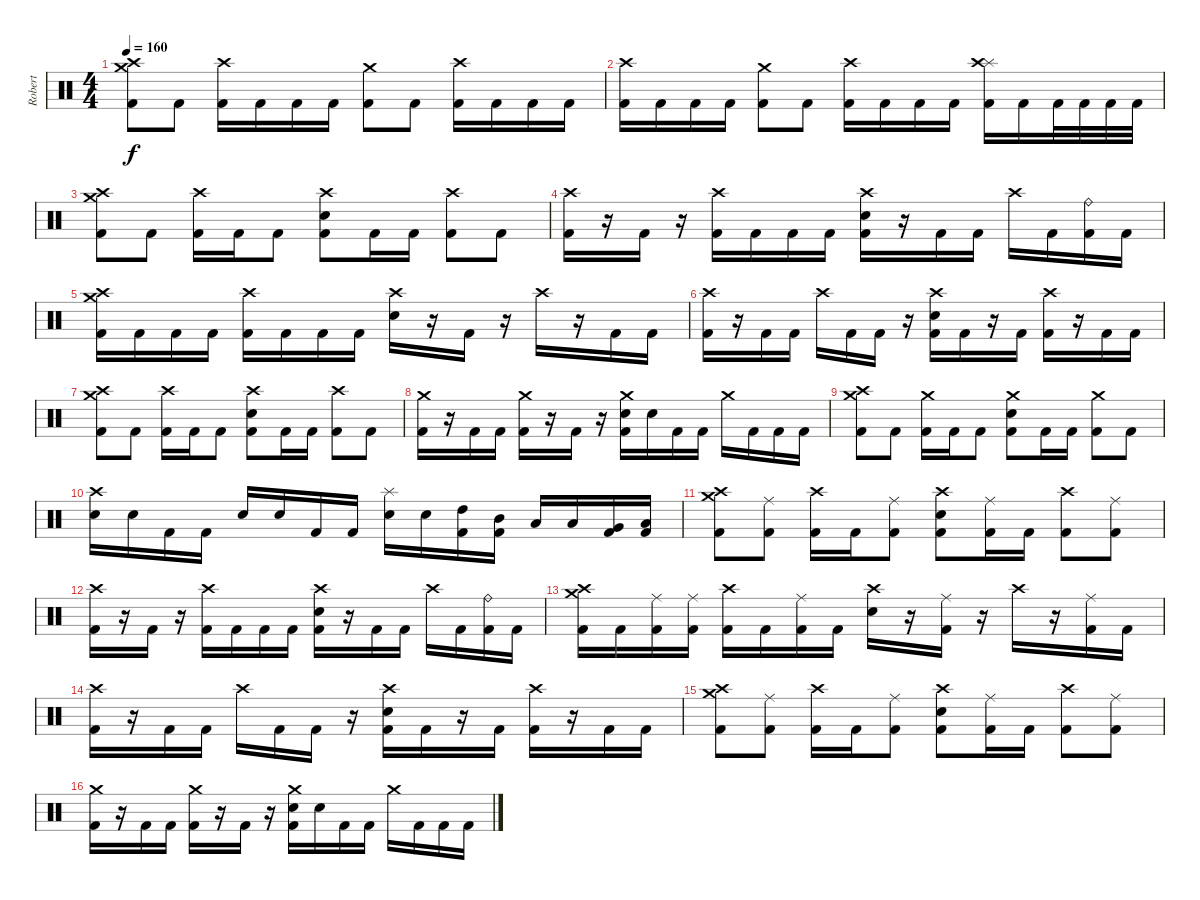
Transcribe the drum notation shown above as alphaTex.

\track ("Robert" "Robert") {instrument percussion}
\staff {score}
\articulation defaults
\ts (4 4)
\tempo 160
\clef neutral
\ks c
("Crash medium (hit)" "Crash high (hit)" "Kick (hit) 2").8{dy f} "Kick (hit) 2".8 ("Crash high (hit)" "Kick (hit) 2").16 "Kick (hit) 2".16 "Kick (hit) 2".16 "Kick (hit) 2".16 ("Crash medium (hit)" "Kick (hit) 2").8 "Kick (hit) 2".8 ("Crash high (hit)" "Kick (hit) 2").16 "Kick (hit) 2".16 "Kick (hit) 2".16 "Kick (hit) 2".16 |
("Crash high (hit)" "Kick (hit) 2").16 "Kick (hit) 2".16 "Kick (hit) 2".16 "Kick (hit) 2".16 ("Crash medium (hit)" "Kick (hit) 2").8 "Kick (hit) 2".8 ("Crash high (hit)" "Kick (hit) 2").16 "Kick (hit) 2".16 "Kick (hit) 2".16 "Kick (hit) 2".16 ("Kick (hit) 2" "Splash (hit)" "Crash high (hit)").16 "Kick (hit) 2".16 "Kick (hit) 2".32 "Kick (hit) 2".32 "Kick (hit) 2".32 "Kick (hit) 2".32 |
("Kick (hit) 2" "Crash medium (hit)" "Crash high (hit)").8 "Kick (hit) 2".8 ("Kick (hit) 2" "Crash high (hit)").16 "Kick (hit) 2".16 "Kick (hit) 2".8 ("Kick (hit) 2" "Electric Snare (hit)" "Crash high (hit)").8 "Kick (hit) 2".16 "Kick (hit) 2".16 ("Kick (hit) 2" "Crash high (hit)").8 "Kick (hit) 2".8 |
("Kick (hit) 2" "Crash high (hit)").16 r.16 "Kick (hit) 2".16 r.16 ("Kick (hit) 2" "Crash high (hit)").16 "Kick (hit) 2".16 "Kick (hit) 2".16 "Kick (hit) 2".16 ("Kick (hit) 2" "Electric Snare (hit)" "Crash high (hit)").16 r.16 "Kick (hit) 2".16 "Kick (hit) 2".16 "Crash high (hit)".16 "Kick (hit) 2".16 ("Kick (hit) 2" "Ride (bell)").16 "Kick (hit) 2".16 |
("Kick (hit) 2" "Crash high (hit)" "Crash medium (hit)").16 "Kick (hit) 2".16 "Kick (hit) 2".16 "Kick (hit) 2".16 ("Kick (hit) 2" "Crash high (hit)").16 "Kick (hit) 2".16 "Kick (hit) 2".16 "Kick (hit) 2".16 ("Electric Snare (hit)" "Crash high (hit)").16 r.16 "Kick (hit) 2".16 r.16 "Crash high (hit)".16 r.16 "Kick (hit) 2".16 "Kick (hit) 2".16 |
("Crash high (hit)" "Kick (hit) 2").16 r.16 "Kick (hit) 2".16 "Kick (hit) 2".16 "Crash high (hit)".16 "Kick (hit) 2".16 "Kick (hit) 2".16 r.16 ("Crash high (hit)" "Electric Snare (hit)" "Kick (hit) 2").16 "Kick (hit) 2".16 r.16 "Kick (hit) 2".16 ("Crash high (hit)" "Kick (hit) 2").16 r.16 "Kick (hit) 2".16 "Kick (hit) 2".16 |
("Kick (hit) 2" "Crash medium (hit)" "Crash high (hit)").8 "Kick (hit) 2".8 ("Kick (hit) 2" "Crash high (hit)").16 "Kick (hit) 2".16 "Kick (hit) 2".8 ("Kick (hit) 2" "Electric Snare (hit)" "Crash high (hit)").8 "Kick (hit) 2".16 "Kick (hit) 2".16 ("Kick (hit) 2" "Crash high (hit)").8 "Kick (hit) 2".8 |
("Crash medium (hit)" "Kick (hit) 2").16 r.16 "Kick (hit) 2".16 "Kick (hit) 2".16 ("Crash medium (hit)" "Kick (hit) 2").16 r.16 "Kick (hit) 2".16 r.16 ("Crash medium (hit)" "Electric Snare (hit)" "Kick (hit) 2").16 "Electric Snare (hit)".16 "Kick (hit) 2".16 "Kick (hit) 2".16 "Crash medium (hit)".16 "Kick (hit) 2".16 "Kick (hit) 2".16 "Kick (hit) 2".16 |
("Kick (hit) 2" "Crash medium (hit)" "Crash high (hit)").8 "Kick (hit) 2".8 ("Kick (hit) 2" "Crash medium (hit)").16 "Kick (hit) 2".16 "Kick (hit) 2".8 ("Kick (hit) 2" "Electric Snare (hit)" "Crash medium (hit)").8 "Kick (hit) 2".16 "Kick (hit) 2".16 ("Kick (hit) 2" "Crash medium (hit)").8 "Kick (hit) 2".8 |
("Electric Snare (hit)" "Crash high (hit)").16 "Electric Snare (hit)".16 "Kick (hit) 2".16 "Kick (hit) 2".16 "Electric Snare (hit)".16 "Electric Snare (hit)".16 "Kick (hit) 2".16 "Kick (hit) 2".16 ("Splash (hit)" "Electric Snare (hit)").16 "Electric Snare (hit)".16 ("High Tom (hit)" "Kick (hit) 2").16 ("Mid Tom (hit)" "Kick (hit) 2").16 "Low Tom (hit)".16 "Low Tom (hit)".16 ("Very Low Tom (hit)" "Kick (hit) 2").16 ("Low Floor Tom (hit)" "Kick (hit) 2").16 |
("Kick (hit) 2" "Crash medium (hit)" "Crash high (hit)").8 ("Kick (hit) 2" "Ride (middle)").8 ("Kick (hit) 2" "Crash high (hit)").16 "Kick (hit) 2".16 ("Kick (hit) 2" "Ride (middle)").8 ("Kick (hit) 2" "Electric Snare (hit)" "Crash high (hit)").8 ("Kick (hit) 2" "Ride (middle)").16 "Kick (hit) 2".16 ("Kick (hit) 2" "Crash high (hit)").8 ("Kick (hit) 2" "Ride (middle)").8 |
("Kick (hit) 2" "Crash high (hit)").16 r.16 "Kick (hit) 2".16 r.16 ("Kick (hit) 2" "Crash high (hit)").16 "Kick (hit) 2".16 "Kick (hit) 2".16 "Kick (hit) 2".16 ("Kick (hit) 2" "Electric Snare (hit)" "Crash high (hit)").16 r.16 "Kick (hit) 2".16 "Kick (hit) 2".16 "Crash high (hit)".16 "Kick (hit) 2".16 ("Kick (hit) 2" "Ride (bell)").16 "Kick (hit) 2".16 |
("Kick (hit) 2" "Crash high (hit)" "Crash medium (hit)").16 "Kick (hit) 2".16 ("Kick (hit) 2" "Ride (middle)").16 ("Kick (hit) 2" "Ride (middle)").16 ("Kick (hit) 2" "Crash high (hit)").16 "Kick (hit) 2".16 ("Kick (hit) 2" "Ride (middle)").16 "Kick (hit) 2".16 ("Electric Snare (hit)" "Crash high (hit)").16 r.16 ("Kick (hit) 2" "Ride (middle)").16 r.16 "Crash high (hit)".16 r.16 ("Kick (hit) 2" "Ride (middle)").16 "Kick (hit) 2".16 |
("Crash high (hit)" "Kick (hit) 2").16 r.16 "Kick (hit) 2".16 "Kick (hit) 2".16 "Crash high (hit)".16 "Kick (hit) 2".16 "Kick (hit) 2".16 r.16 ("Crash high (hit)" "Electric Snare (hit)" "Kick (hit) 2").16 "Kick (hit) 2".16 r.16 "Kick (hit) 2".16 ("Crash high (hit)" "Kick (hit) 2").16 r.16 "Kick (hit) 2".16 "Kick (hit) 2".16 |
("Kick (hit) 2" "Crash medium (hit)" "Crash high (hit)").8 ("Kick (hit) 2" "Ride (middle)").8 ("Kick (hit) 2" "Crash high (hit)").16 "Kick (hit) 2".16 ("Kick (hit) 2" "Ride (middle)").8 ("Kick (hit) 2" "Electric Snare (hit)" "Crash high (hit)").8 ("Kick (hit) 2" "Ride (middle)").16 "Kick (hit) 2".16 ("Kick (hit) 2" "Crash high (hit)").8 ("Kick (hit) 2" "Ride (middle)").8 |
("Crash medium (hit)" "Kick (hit) 2").16 r.16 "Kick (hit) 2".16 "Kick (hit) 2".16 ("Crash medium (hit)" "Kick (hit) 2").16 r.16 "Kick (hit) 2".16 r.16 ("Crash medium (hit)" "Electric Snare (hit)" "Kick (hit) 2").16 "Electric Snare (hit)".16 "Kick (hit) 2".16 "Kick (hit) 2".16 "Crash medium (hit)".16 "Kick (hit) 2".16 "Kick (hit) 2".16 "Kick (hit) 2".16
